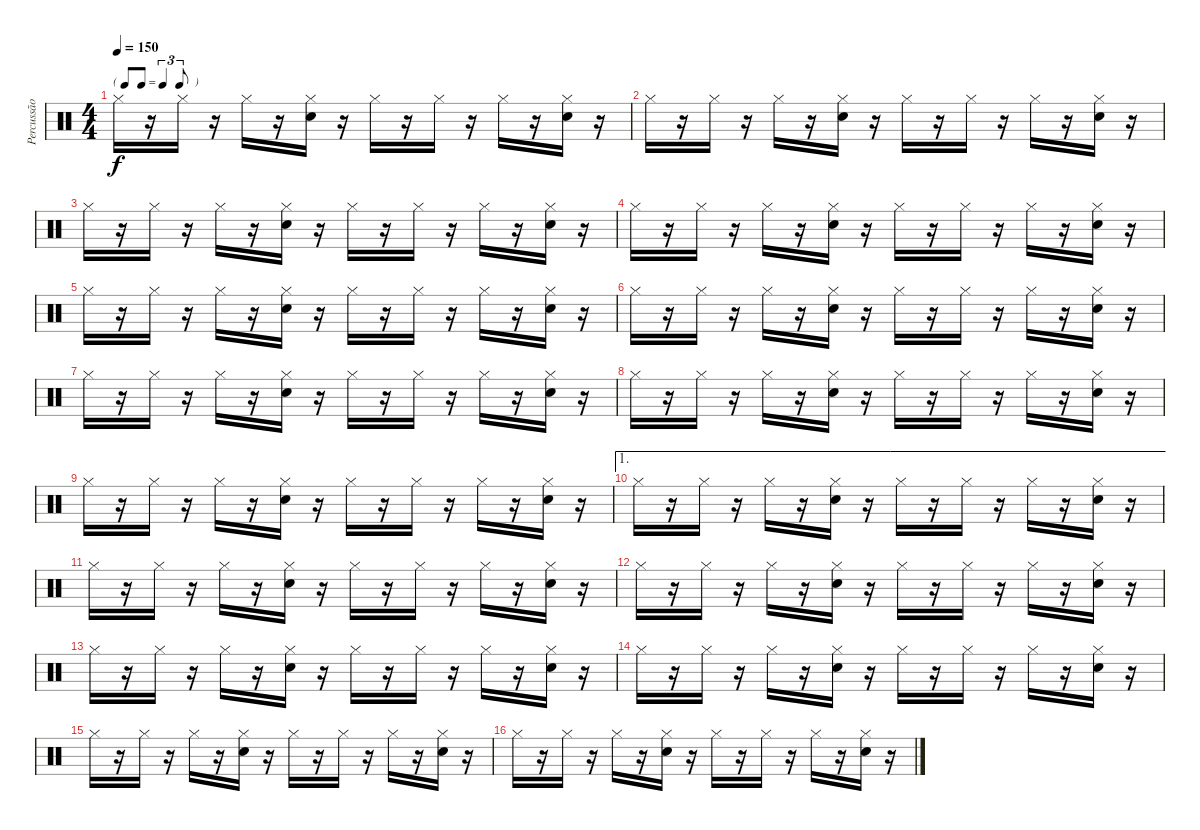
\track ("Percussão" "Percussão") {instrument percussion}
\staff {score}
\articulation defaults
\ts (4 4)
\tf triplet8th
\tempo 150
\clef neutral
\ks c "Hi-Hat (closed)".16{dy f}
r.16 "Hi-Hat (closed)".16 r.16 "Hi-Hat (closed)".16 r.16 ("Hi-Hat (closed)" "Snare (hit) 2").16 r.16 "Hi-Hat (closed)".16 r.16 "Hi-Hat (closed)".16 r.16 "Hi-Hat (closed)".16 r.16 ("Hi-Hat (closed)" "Snare (hit) 2").16 r.16 |
"Hi-Hat (closed)".16 r.16 "Hi-Hat (closed)".16 r.16 "Hi-Hat (closed)".16 r.16 ("Hi-Hat (closed)" "Snare (hit) 2").16 r.16 "Hi-Hat (closed)".16 r.16 "Hi-Hat (closed)".16 r.16 "Hi-Hat (closed)".16 r.16 ("Hi-Hat (closed)" "Snare (hit) 2").16 r.16 |
"Hi-Hat (closed)".16 r.16 "Hi-Hat (closed)".16 r.16 "Hi-Hat (closed)".16 r.16 ("Hi-Hat (closed)" "Snare (hit) 2").16 r.16 "Hi-Hat (closed)".16 r.16 "Hi-Hat (closed)".16 r.16 "Hi-Hat (closed)".16 r.16 ("Hi-Hat (closed)" "Snare (hit) 2").16 r.16 |
"Hi-Hat (closed)".16 r.16 "Hi-Hat (closed)".16 r.16 "Hi-Hat (closed)".16 r.16 ("Hi-Hat (closed)" "Snare (hit) 2").16 r.16 "Hi-Hat (closed)".16 r.16 "Hi-Hat (closed)".16 r.16 "Hi-Hat (closed)".16 r.16 ("Hi-Hat (closed)" "Snare (hit) 2").16 r.16 |
"Hi-Hat (closed)".16 r.16 "Hi-Hat (closed)".16 r.16 "Hi-Hat (closed)".16 r.16 ("Hi-Hat (closed)" "Snare (hit) 2").16 r.16 "Hi-Hat (closed)".16 r.16 "Hi-Hat (closed)".16 r.16 "Hi-Hat (closed)".16 r.16 ("Hi-Hat (closed)" "Snare (hit) 2").16 r.16 |
"Hi-Hat (closed)".16 r.16 "Hi-Hat (closed)".16 r.16 "Hi-Hat (closed)".16 r.16 ("Hi-Hat (closed)" "Snare (hit) 2").16 r.16 "Hi-Hat (closed)".16 r.16 "Hi-Hat (closed)".16 r.16 "Hi-Hat (closed)".16 r.16 ("Hi-Hat (closed)" "Snare (hit) 2").16 r.16 |
"Hi-Hat (closed)".16 r.16 "Hi-Hat (closed)".16 r.16 "Hi-Hat (closed)".16 r.16 ("Hi-Hat (closed)" "Snare (hit) 2").16 r.16 "Hi-Hat (closed)".16 r.16 "Hi-Hat (closed)".16 r.16 "Hi-Hat (closed)".16 r.16 ("Hi-Hat (closed)" "Snare (hit) 2").16 r.16 |
"Hi-Hat (closed)".16 r.16 "Hi-Hat (closed)".16 r.16 "Hi-Hat (closed)".16 r.16 ("Hi-Hat (closed)" "Snare (hit) 2").16 r.16 "Hi-Hat (closed)".16 r.16 "Hi-Hat (closed)".16 r.16 "Hi-Hat (closed)".16 r.16 ("Hi-Hat (closed)" "Snare (hit) 2").16 r.16 |
"Hi-Hat (closed)".16 r.16 "Hi-Hat (closed)".16 r.16 "Hi-Hat (closed)".16 r.16 ("Hi-Hat (closed)" "Snare (hit) 2").16 r.16 "Hi-Hat (closed)".16 r.16 "Hi-Hat (closed)".16 r.16 "Hi-Hat (closed)".16 r.16 ("Hi-Hat (closed)" "Snare (hit) 2").16 r.16 |
\ae 1 "Hi-Hat (closed)".16
r.16 "Hi-Hat (closed)".16 r.16 "Hi-Hat (closed)".16 r.16 ("Hi-Hat (closed)" "Snare (hit) 2").16 r.16 "Hi-Hat (closed)".16 r.16 "Hi-Hat (closed)".16 r.16 "Hi-Hat (closed)".16 r.16 ("Hi-Hat (closed)" "Snare (hit) 2").16 r.16 |
"Hi-Hat (closed)".16 r.16 "Hi-Hat (closed)".16 r.16 "Hi-Hat (closed)".16 r.16 ("Hi-Hat (closed)" "Snare (hit) 2").16 r.16 "Hi-Hat (closed)".16 r.16 "Hi-Hat (closed)".16 r.16 "Hi-Hat (closed)".16 r.16 ("Hi-Hat (closed)" "Snare (hit) 2").16 r.16 |
"Hi-Hat (closed)".16 r.16 "Hi-Hat (closed)".16 r.16 "Hi-Hat (closed)".16 r.16 ("Hi-Hat (closed)" "Snare (hit) 2").16 r.16 "Hi-Hat (closed)".16 r.16 "Hi-Hat (closed)".16 r.16 "Hi-Hat (closed)".16 r.16 ("Hi-Hat (closed)" "Snare (hit) 2").16 r.16 |
"Hi-Hat (closed)".16 r.16 "Hi-Hat (closed)".16 r.16 "Hi-Hat (closed)".16 r.16 ("Hi-Hat (closed)" "Snare (hit) 2").16 r.16 "Hi-Hat (closed)".16 r.16 "Hi-Hat (closed)".16 r.16 "Hi-Hat (closed)".16 r.16 ("Hi-Hat (closed)" "Snare (hit) 2").16 r.16 |
"Hi-Hat (closed)".16 r.16 "Hi-Hat (closed)".16 r.16 "Hi-Hat (closed)".16 r.16 ("Hi-Hat (closed)" "Snare (hit) 2").16 r.16 "Hi-Hat (closed)".16 r.16 "Hi-Hat (closed)".16 r.16 "Hi-Hat (closed)".16 r.16 ("Hi-Hat (closed)" "Snare (hit) 2").16 r.16 |
"Hi-Hat (closed)".16 r.16 "Hi-Hat (closed)".16 r.16 "Hi-Hat (closed)".16 r.16 ("Hi-Hat (closed)" "Snare (hit) 2").16 r.16 "Hi-Hat (closed)".16 r.16 "Hi-Hat (closed)".16 r.16 "Hi-Hat (closed)".16 r.16 ("Hi-Hat (closed)" "Snare (hit) 2").16 r.16 |
"Hi-Hat (closed)".16 r.16 "Hi-Hat (closed)".16 r.16 "Hi-Hat (closed)".16 r.16 ("Hi-Hat (closed)" "Snare (hit) 2").16 r.16 "Hi-Hat (closed)".16 r.16 "Hi-Hat (closed)".16 r.16 "Hi-Hat (closed)".16 r.16 ("Hi-Hat (closed)" "Snare (hit) 2").16 r.16
